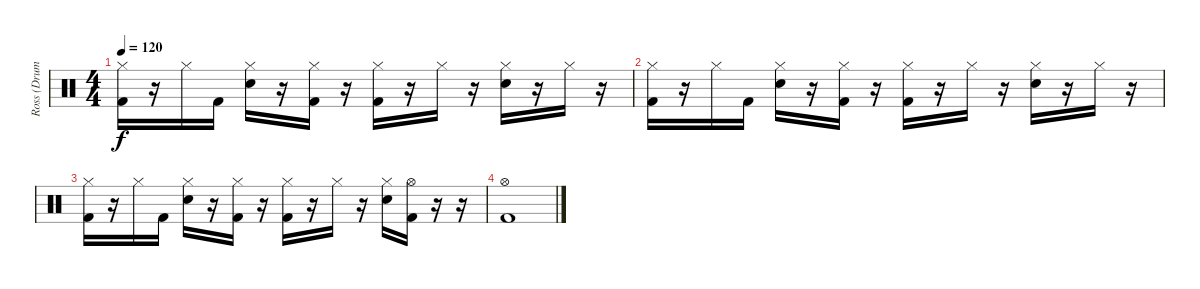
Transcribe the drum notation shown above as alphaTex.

\track ("Ross (Drums)" "Ross (Drum") {instrument percussion}
\staff {score}
\articulation defaults
\ts (4 4)
\tempo 120
\clef neutral
\ks c
("Hi-Hat (closed)" "Kick (hit) 2").16{dy f} r.16 "Hi-Hat (closed)".16 "Kick (hit) 2".16 ("Hi-Hat (closed)" "Electric Snare (hit)").16 r.16 ("Hi-Hat (closed)" "Kick (hit) 2").16 r.16 ("Hi-Hat (closed)" "Kick (hit) 2").16 r.16 "Hi-Hat (closed)".16 r.16 ("Hi-Hat (closed)" "Electric Snare (hit)").16 r.16 "Hi-Hat (closed)".16 r.16 |
("Hi-Hat (closed)" "Kick (hit) 2").16 r.16 "Hi-Hat (closed)".16 "Kick (hit) 2".16 ("Hi-Hat (closed)" "Electric Snare (hit)").16 r.16 ("Hi-Hat (closed)" "Kick (hit) 2").16 r.16 ("Hi-Hat (closed)" "Kick (hit) 2").16 r.16 "Hi-Hat (closed)".16 r.16 ("Hi-Hat (closed)" "Electric Snare (hit)").16 r.16 "Hi-Hat (closed)".16 r.16 |
("Hi-Hat (closed)" "Kick (hit) 2").16 r.16 "Hi-Hat (closed)".16 "Kick (hit) 2".16 ("Hi-Hat (closed)" "Electric Snare (hit)").16 r.16 ("Hi-Hat (closed)" "Kick (hit) 2").16 r.16 ("Hi-Hat (closed)" "Kick (hit) 2").16 r.16 "Hi-Hat (closed)".16 r.16 ("Hi-Hat (closed)" "Electric Snare (hit)").16 ("Hi-Hat (open)" "Kick (hit) 2").16 r.16 r.16 |
("Hi-Hat (open)" "Kick (hit) 2").1
